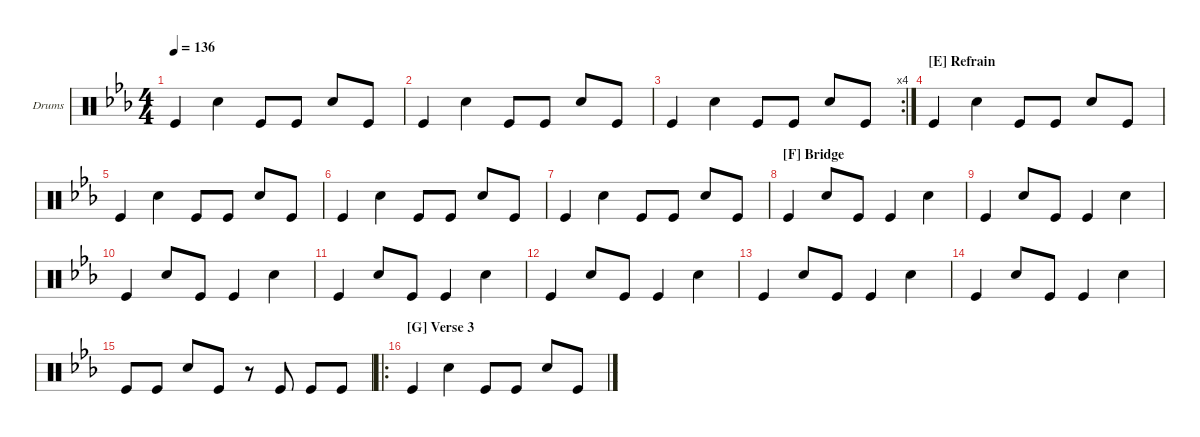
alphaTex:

\defaultSystemsLayout 4
\hideDynamics
\bracketExtendMode groupsimilarinstruments
\firstSystemTrackNameOrientation horizontal
\otherSystemsTrackNameOrientation horizontal
\track ("Drumkit" "Drums") {multiBarRest instrument percussion}
\staff {score}
\articulation defaults
\ts (4 4)
\tempo 136
\clef neutral
\ks eb "Kick (hit)".4{dy mf} "Snare (hit) 2".4 "Kick (hit)".8 "Kick (hit)".8 "Snare (hit) 2".8 "Kick (hit)".8
|
"Kick (hit)".4 "Snare (hit) 2".4 "Kick (hit)".8 "Kick (hit)".8 "Snare (hit) 2".8 "Kick (hit)".8 |
\rc 4 "Kick (hit)".4 "Snare (hit) 2".4 "Kick (hit)".8 "Kick (hit)".8 "Snare (hit) 2".8 "Kick (hit)".8
|
\section ("E" "Refrain")
"Kick (hit)".4 "Snare (hit) 2".4 "Kick (hit)".8 "Kick (hit)".8 "Snare (hit) 2".8 "Kick (hit)".8 |
"Kick (hit)".4 "Snare (hit) 2".4 "Kick (hit)".8 "Kick (hit)".8 "Snare (hit) 2".8 "Kick (hit)".8 |
"Kick (hit)".4 "Snare (hit) 2".4 "Kick (hit)".8 "Kick (hit)".8 "Snare (hit) 2".8 "Kick (hit)".8 |
"Kick (hit)".4 "Snare (hit) 2".4 "Kick (hit)".8 "Kick (hit)".8 "Snare (hit) 2".8 "Kick (hit)".8 |
\section ("F" "Bridge")
"Kick (hit)".4 "Snare (hit) 2".8 "Kick (hit)".8 "Kick (hit)".4 "Snare (hit) 2".4 |
"Kick (hit)".4 "Snare (hit) 2".8 "Kick (hit)".8 "Kick (hit)".4 "Snare (hit) 2".4 |
"Kick (hit)".4 "Snare (hit) 2".8 "Kick (hit)".8 "Kick (hit)".4 "Snare (hit) 2".4 |
"Kick (hit)".4 "Snare (hit) 2".8 "Kick (hit)".8 "Kick (hit)".4 "Snare (hit) 2".4 |
"Kick (hit)".4 "Snare (hit) 2".8 "Kick (hit)".8 "Kick (hit)".4 "Snare (hit) 2".4 |
"Kick (hit)".4 "Snare (hit) 2".8 "Kick (hit)".8 "Kick (hit)".4 "Snare (hit) 2".4 |
"Kick (hit)".4 "Snare (hit) 2".8 "Kick (hit)".8 "Kick (hit)".4 "Snare (hit) 2".4 |
"Kick (hit)".8 "Kick (hit)".8 "Snare (hit) 2".8 "Kick (hit)".8 r.8 "Kick (hit)".8 "Kick (hit)".8 "Kick (hit)".8 |
\ro
\section ("G" "Verse 3")
"Kick (hit)".4 "Snare (hit) 2".4 "Kick (hit)".8 "Kick (hit)".8 "Snare (hit) 2".8 "Kick (hit)".8
